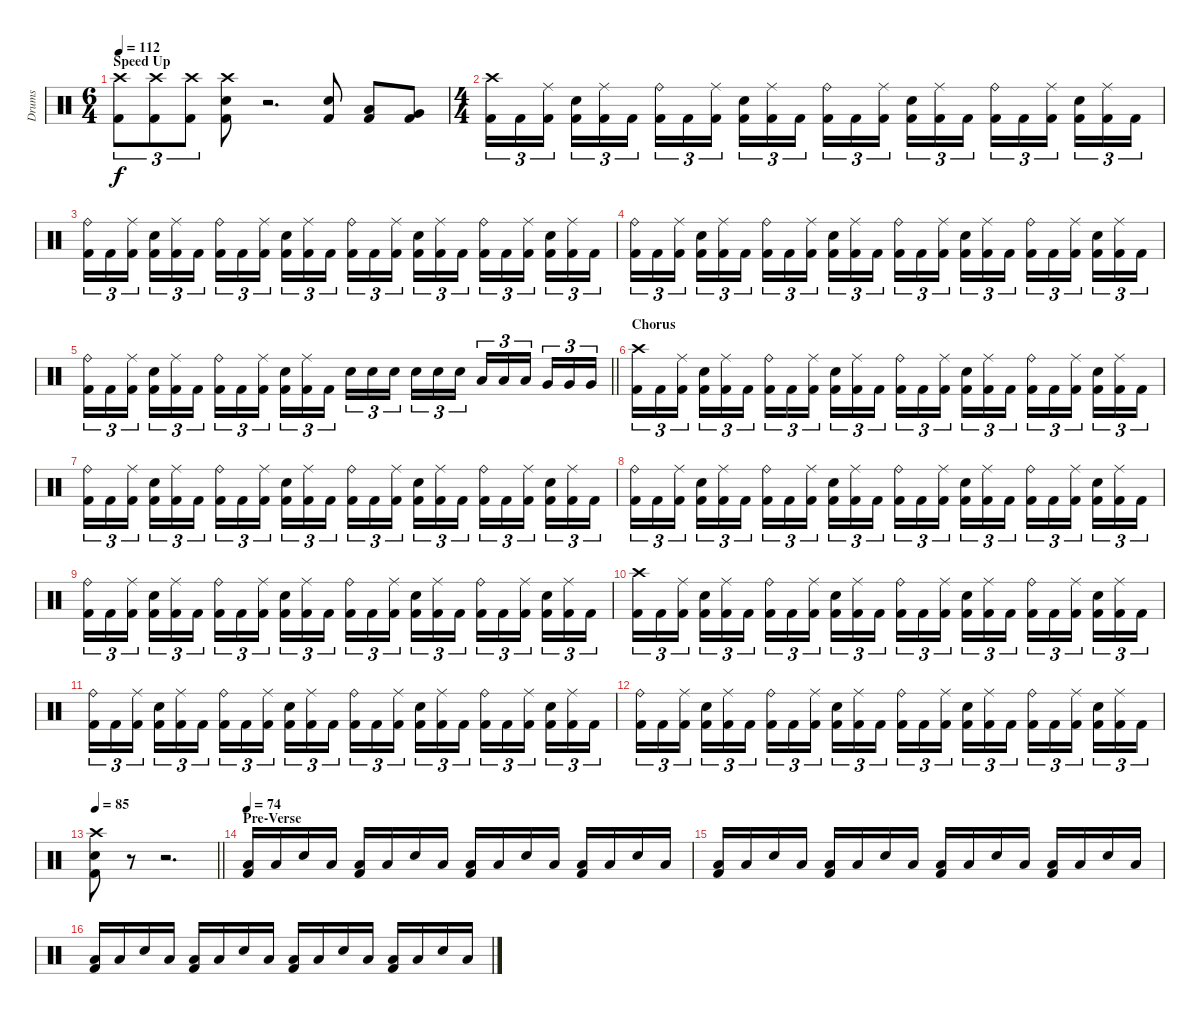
\track ("Drums" "Drums") {instrument percussion}
\staff {score}
\articulation defaults
\ts (6 4)
\section ("" "Speed Up")
\tempo 112
\clef neutral
\ks c
("Crash high (hit)" "Kick (hit) 2").8{tu (3 2) dy f} ("Crash high (hit)" "Kick (hit) 2").8{tu (3 2)} ("Crash high (hit)" "Kick (hit) 2").8{tu (3 2)} ("Crash high (hit)" "Snare (hit) 2" "Kick (hit) 2").8 r.2{d} ("Snare (hit) 2" "Kick (hit) 2").8 ("Low Tom (hit)" "Kick (hit) 2").8 ("Very Low Tom (hit)" "Kick (hit) 2").8 |
\ts (4 4)
("Crash high (hit)" "Kick (hit) 2").16{tu (3 2)} "Kick (hit) 2".16{tu (3 2)} ("Ride (middle)" "Kick (hit) 2").16{tu (3 2) beam splitsecondary} ("Snare (hit) 2" "Kick (hit) 2").16{tu (3 2)} ("Ride (middle)" "Kick (hit) 2").16{tu (3 2)} "Kick (hit) 2".16{tu (3 2)} ("Ride (bell)" "Kick (hit) 2").16{tu (3 2)} "Kick (hit) 2".16{tu (3 2)} ("Ride (middle)" "Kick (hit) 2").16{tu (3 2) beam splitsecondary} ("Snare (hit) 2" "Kick (hit) 2").16{tu (3 2)} ("Ride (middle)" "Kick (hit) 2").16{tu (3 2)} "Kick (hit) 2".16{tu (3 2)} ("Ride (bell)" "Kick (hit) 2").16{tu (3 2)} "Kick (hit) 2".16{tu (3 2)} ("Ride (middle)" "Kick (hit) 2").16{tu (3 2) beam splitsecondary} ("Snare (hit) 2" "Kick (hit) 2").16{tu (3 2)} ("Ride (middle)" "Kick (hit) 2").16{tu (3 2)} "Kick (hit) 2".16{tu (3 2)} ("Ride (bell)" "Kick (hit) 2").16{tu (3 2)} "Kick (hit) 2".16{tu (3 2)} ("Ride (middle)" "Kick (hit) 2").16{tu (3 2) beam splitsecondary} ("Snare (hit) 2" "Kick (hit) 2").16{tu (3 2)} ("Ride (middle)" "Kick (hit) 2").16{tu (3 2)} "Kick (hit) 2".16{tu (3 2)} |
("Ride (bell)" "Kick (hit) 2").16{tu (3 2)} "Kick (hit) 2".16{tu (3 2)} ("Ride (middle)" "Kick (hit) 2").16{tu (3 2) beam splitsecondary} ("Snare (hit) 2" "Kick (hit) 2").16{tu (3 2)} ("Ride (middle)" "Kick (hit) 2").16{tu (3 2)} "Kick (hit) 2".16{tu (3 2)} ("Ride (bell)" "Kick (hit) 2").16{tu (3 2)} "Kick (hit) 2".16{tu (3 2)} ("Ride (middle)" "Kick (hit) 2").16{tu (3 2) beam splitsecondary} ("Snare (hit) 2" "Kick (hit) 2").16{tu (3 2)} ("Ride (middle)" "Kick (hit) 2").16{tu (3 2)} "Kick (hit) 2".16{tu (3 2)} ("Ride (bell)" "Kick (hit) 2").16{tu (3 2)} "Kick (hit) 2".16{tu (3 2)} ("Ride (middle)" "Kick (hit) 2").16{tu (3 2) beam splitsecondary} ("Snare (hit) 2" "Kick (hit) 2").16{tu (3 2)} ("Ride (middle)" "Kick (hit) 2").16{tu (3 2)} "Kick (hit) 2".16{tu (3 2)} ("Ride (bell)" "Kick (hit) 2").16{tu (3 2)} "Kick (hit) 2".16{tu (3 2)} ("Ride (middle)" "Kick (hit) 2").16{tu (3 2) beam splitsecondary} ("Snare (hit) 2" "Kick (hit) 2").16{tu (3 2)} ("Ride (middle)" "Kick (hit) 2").16{tu (3 2)} "Kick (hit) 2".16{tu (3 2)} |
("Ride (bell)" "Kick (hit) 2").16{tu (3 2)} "Kick (hit) 2".16{tu (3 2)} ("Ride (middle)" "Kick (hit) 2").16{tu (3 2) beam splitsecondary} ("Snare (hit) 2" "Kick (hit) 2").16{tu (3 2)} ("Ride (middle)" "Kick (hit) 2").16{tu (3 2)} "Kick (hit) 2".16{tu (3 2)} ("Ride (bell)" "Kick (hit) 2").16{tu (3 2)} "Kick (hit) 2".16{tu (3 2)} ("Ride (middle)" "Kick (hit) 2").16{tu (3 2) beam splitsecondary} ("Snare (hit) 2" "Kick (hit) 2").16{tu (3 2)} ("Ride (middle)" "Kick (hit) 2").16{tu (3 2)} "Kick (hit) 2".16{tu (3 2)} ("Ride (bell)" "Kick (hit) 2").16{tu (3 2)} "Kick (hit) 2".16{tu (3 2)} ("Ride (middle)" "Kick (hit) 2").16{tu (3 2) beam splitsecondary} ("Snare (hit) 2" "Kick (hit) 2").16{tu (3 2)} ("Ride (middle)" "Kick (hit) 2").16{tu (3 2)} "Kick (hit) 2".16{tu (3 2)} ("Ride (bell)" "Kick (hit) 2").16{tu (3 2)} "Kick (hit) 2".16{tu (3 2)} ("Ride (middle)" "Kick (hit) 2").16{tu (3 2) beam splitsecondary} ("Snare (hit) 2" "Kick (hit) 2").16{tu (3 2)} ("Ride (middle)" "Kick (hit) 2").16{tu (3 2)} "Kick (hit) 2".16{tu (3 2)} |
\barLineRight lightlight
("Ride (bell)" "Kick (hit) 2").16{tu (3 2)} "Kick (hit) 2".16{tu (3 2)} ("Ride (middle)" "Kick (hit) 2").16{tu (3 2) beam splitsecondary} ("Snare (hit) 2" "Kick (hit) 2").16{tu (3 2)} ("Ride (middle)" "Kick (hit) 2").16{tu (3 2)} "Kick (hit) 2".16{tu (3 2)} ("Ride (bell)" "Kick (hit) 2").16{tu (3 2)} "Kick (hit) 2".16{tu (3 2)} ("Ride (middle)" "Kick (hit) 2").16{tu (3 2) beam splitsecondary} ("Snare (hit) 2" "Kick (hit) 2").16{tu (3 2)} ("Ride (middle)" "Kick (hit) 2").16{tu (3 2)} "Kick (hit) 2".16{tu (3 2)} "Snare (hit) 2".16{tu (3 2)} "Snare (hit) 2".16{tu (3 2)} "Snare (hit) 2".16{tu (3 2) beam splitsecondary} "Snare (hit) 2".16{tu (3 2)} "Snare (hit) 2".16{tu (3 2)} "Snare (hit) 2".16{tu (3 2)} "Low Tom (hit)".16{tu (3 2)} "Low Tom (hit)".16{tu (3 2)} "Low Tom (hit)".16{tu (3 2) beam splitsecondary} "Very Low Tom (hit)".16{tu (3 2)} "Very Low Tom (hit)".16{tu (3 2)} "Very Low Tom (hit)".16{tu (3 2)} |
\section ("" "Chorus")
("Crash high (hit)" "Kick (hit) 2").16{tu (3 2)} "Kick (hit) 2".16{tu (3 2)} ("Ride (middle)" "Kick (hit) 2").16{tu (3 2) beam splitsecondary} ("Snare (hit) 2" "Kick (hit) 2").16{tu (3 2)} ("Ride (middle)" "Kick (hit) 2").16{tu (3 2)} "Kick (hit) 2".16{tu (3 2)} ("Ride (bell)" "Kick (hit) 2").16{tu (3 2)} "Kick (hit) 2".16{tu (3 2)} ("Ride (middle)" "Kick (hit) 2").16{tu (3 2) beam splitsecondary} ("Snare (hit) 2" "Kick (hit) 2").16{tu (3 2)} ("Ride (middle)" "Kick (hit) 2").16{tu (3 2)} "Kick (hit) 2".16{tu (3 2)} ("Ride (bell)" "Kick (hit) 2").16{tu (3 2)} "Kick (hit) 2".16{tu (3 2)} ("Ride (middle)" "Kick (hit) 2").16{tu (3 2) beam splitsecondary} ("Snare (hit) 2" "Kick (hit) 2").16{tu (3 2)} ("Ride (middle)" "Kick (hit) 2").16{tu (3 2)} "Kick (hit) 2".16{tu (3 2)} ("Ride (bell)" "Kick (hit) 2").16{tu (3 2)} "Kick (hit) 2".16{tu (3 2)} ("Ride (middle)" "Kick (hit) 2").16{tu (3 2) beam splitsecondary} ("Snare (hit) 2" "Kick (hit) 2").16{tu (3 2)} ("Ride (middle)" "Kick (hit) 2").16{tu (3 2)} "Kick (hit) 2".16{tu (3 2)} |
("Ride (bell)" "Kick (hit) 2").16{tu (3 2)} "Kick (hit) 2".16{tu (3 2)} ("Ride (middle)" "Kick (hit) 2").16{tu (3 2) beam splitsecondary} ("Snare (hit) 2" "Kick (hit) 2").16{tu (3 2)} ("Ride (middle)" "Kick (hit) 2").16{tu (3 2)} "Kick (hit) 2".16{tu (3 2)} ("Ride (bell)" "Kick (hit) 2").16{tu (3 2)} "Kick (hit) 2".16{tu (3 2)} ("Ride (middle)" "Kick (hit) 2").16{tu (3 2) beam splitsecondary} ("Snare (hit) 2" "Kick (hit) 2").16{tu (3 2)} ("Ride (middle)" "Kick (hit) 2").16{tu (3 2)} "Kick (hit) 2".16{tu (3 2)} ("Ride (bell)" "Kick (hit) 2").16{tu (3 2)} "Kick (hit) 2".16{tu (3 2)} ("Ride (middle)" "Kick (hit) 2").16{tu (3 2) beam splitsecondary} ("Snare (hit) 2" "Kick (hit) 2").16{tu (3 2)} ("Ride (middle)" "Kick (hit) 2").16{tu (3 2)} "Kick (hit) 2".16{tu (3 2)} ("Ride (bell)" "Kick (hit) 2").16{tu (3 2)} "Kick (hit) 2".16{tu (3 2)} ("Ride (middle)" "Kick (hit) 2").16{tu (3 2) beam splitsecondary} ("Snare (hit) 2" "Kick (hit) 2").16{tu (3 2)} ("Ride (middle)" "Kick (hit) 2").16{tu (3 2)} "Kick (hit) 2".16{tu (3 2)} |
("Ride (bell)" "Kick (hit) 2").16{tu (3 2)} "Kick (hit) 2".16{tu (3 2)} ("Ride (middle)" "Kick (hit) 2").16{tu (3 2) beam splitsecondary} ("Snare (hit) 2" "Kick (hit) 2").16{tu (3 2)} ("Ride (middle)" "Kick (hit) 2").16{tu (3 2)} "Kick (hit) 2".16{tu (3 2)} ("Ride (bell)" "Kick (hit) 2").16{tu (3 2)} "Kick (hit) 2".16{tu (3 2)} ("Ride (middle)" "Kick (hit) 2").16{tu (3 2) beam splitsecondary} ("Snare (hit) 2" "Kick (hit) 2").16{tu (3 2)} ("Ride (middle)" "Kick (hit) 2").16{tu (3 2)} "Kick (hit) 2".16{tu (3 2)} ("Ride (bell)" "Kick (hit) 2").16{tu (3 2)} "Kick (hit) 2".16{tu (3 2)} ("Ride (middle)" "Kick (hit) 2").16{tu (3 2) beam splitsecondary} ("Snare (hit) 2" "Kick (hit) 2").16{tu (3 2)} ("Ride (middle)" "Kick (hit) 2").16{tu (3 2)} "Kick (hit) 2".16{tu (3 2)} ("Ride (bell)" "Kick (hit) 2").16{tu (3 2)} "Kick (hit) 2".16{tu (3 2)} ("Ride (middle)" "Kick (hit) 2").16{tu (3 2) beam splitsecondary} ("Snare (hit) 2" "Kick (hit) 2").16{tu (3 2)} ("Ride (middle)" "Kick (hit) 2").16{tu (3 2)} "Kick (hit) 2".16{tu (3 2)} |
("Ride (bell)" "Kick (hit) 2").16{tu (3 2)} "Kick (hit) 2".16{tu (3 2)} ("Ride (middle)" "Kick (hit) 2").16{tu (3 2) beam splitsecondary} ("Snare (hit) 2" "Kick (hit) 2").16{tu (3 2)} ("Ride (middle)" "Kick (hit) 2").16{tu (3 2)} "Kick (hit) 2".16{tu (3 2)} ("Ride (bell)" "Kick (hit) 2").16{tu (3 2)} "Kick (hit) 2".16{tu (3 2)} ("Ride (middle)" "Kick (hit) 2").16{tu (3 2) beam splitsecondary} ("Snare (hit) 2" "Kick (hit) 2").16{tu (3 2)} ("Ride (middle)" "Kick (hit) 2").16{tu (3 2)} "Kick (hit) 2".16{tu (3 2)} ("Ride (bell)" "Kick (hit) 2").16{tu (3 2)} "Kick (hit) 2".16{tu (3 2)} ("Ride (middle)" "Kick (hit) 2").16{tu (3 2) beam splitsecondary} ("Snare (hit) 2" "Kick (hit) 2").16{tu (3 2)} ("Ride (middle)" "Kick (hit) 2").16{tu (3 2)} "Kick (hit) 2".16{tu (3 2)} ("Ride (bell)" "Kick (hit) 2").16{tu (3 2)} "Kick (hit) 2".16{tu (3 2)} ("Ride (middle)" "Kick (hit) 2").16{tu (3 2) beam splitsecondary} ("Snare (hit) 2" "Kick (hit) 2").16{tu (3 2)} ("Ride (middle)" "Kick (hit) 2").16{tu (3 2)} "Kick (hit) 2".16{tu (3 2)} |
("Crash high (hit)" "Kick (hit) 2").16{tu (3 2)} "Kick (hit) 2".16{tu (3 2)} ("Ride (middle)" "Kick (hit) 2").16{tu (3 2) beam splitsecondary} ("Snare (hit) 2" "Kick (hit) 2").16{tu (3 2)} ("Ride (middle)" "Kick (hit) 2").16{tu (3 2)} "Kick (hit) 2".16{tu (3 2)} ("Ride (bell)" "Kick (hit) 2").16{tu (3 2)} "Kick (hit) 2".16{tu (3 2)} ("Ride (middle)" "Kick (hit) 2").16{tu (3 2) beam splitsecondary} ("Snare (hit) 2" "Kick (hit) 2").16{tu (3 2)} ("Ride (middle)" "Kick (hit) 2").16{tu (3 2)} "Kick (hit) 2".16{tu (3 2)} ("Ride (bell)" "Kick (hit) 2").16{tu (3 2)} "Kick (hit) 2".16{tu (3 2)} ("Ride (middle)" "Kick (hit) 2").16{tu (3 2) beam splitsecondary} ("Snare (hit) 2" "Kick (hit) 2").16{tu (3 2)} ("Ride (middle)" "Kick (hit) 2").16{tu (3 2)} "Kick (hit) 2".16{tu (3 2)} ("Ride (bell)" "Kick (hit) 2").16{tu (3 2)} "Kick (hit) 2".16{tu (3 2)} ("Ride (middle)" "Kick (hit) 2").16{tu (3 2) beam splitsecondary} ("Snare (hit) 2" "Kick (hit) 2").16{tu (3 2)} ("Ride (middle)" "Kick (hit) 2").16{tu (3 2)} "Kick (hit) 2".16{tu (3 2)} |
("Ride (bell)" "Kick (hit) 2").16{tu (3 2)} "Kick (hit) 2".16{tu (3 2)} ("Ride (middle)" "Kick (hit) 2").16{tu (3 2) beam splitsecondary} ("Snare (hit) 2" "Kick (hit) 2").16{tu (3 2)} ("Ride (middle)" "Kick (hit) 2").16{tu (3 2)} "Kick (hit) 2".16{tu (3 2)} ("Ride (bell)" "Kick (hit) 2").16{tu (3 2)} "Kick (hit) 2".16{tu (3 2)} ("Ride (middle)" "Kick (hit) 2").16{tu (3 2) beam splitsecondary} ("Snare (hit) 2" "Kick (hit) 2").16{tu (3 2)} ("Ride (middle)" "Kick (hit) 2").16{tu (3 2)} "Kick (hit) 2".16{tu (3 2)} ("Ride (bell)" "Kick (hit) 2").16{tu (3 2)} "Kick (hit) 2".16{tu (3 2)} ("Ride (middle)" "Kick (hit) 2").16{tu (3 2) beam splitsecondary} ("Snare (hit) 2" "Kick (hit) 2").16{tu (3 2)} ("Ride (middle)" "Kick (hit) 2").16{tu (3 2)} "Kick (hit) 2".16{tu (3 2)} ("Ride (bell)" "Kick (hit) 2").16{tu (3 2)} "Kick (hit) 2".16{tu (3 2)} ("Ride (middle)" "Kick (hit) 2").16{tu (3 2) beam splitsecondary} ("Snare (hit) 2" "Kick (hit) 2").16{tu (3 2)} ("Ride (middle)" "Kick (hit) 2").16{tu (3 2)} "Kick (hit) 2".16{tu (3 2)} |
("Ride (bell)" "Kick (hit) 2").16{tu (3 2)} "Kick (hit) 2".16{tu (3 2)} ("Ride (middle)" "Kick (hit) 2").16{tu (3 2) beam splitsecondary} ("Snare (hit) 2" "Kick (hit) 2").16{tu (3 2)} ("Ride (middle)" "Kick (hit) 2").16{tu (3 2)} "Kick (hit) 2".16{tu (3 2)} ("Ride (bell)" "Kick (hit) 2").16{tu (3 2)} "Kick (hit) 2".16{tu (3 2)} ("Ride (middle)" "Kick (hit) 2").16{tu (3 2) beam splitsecondary} ("Snare (hit) 2" "Kick (hit) 2").16{tu (3 2)} ("Ride (middle)" "Kick (hit) 2").16{tu (3 2)} "Kick (hit) 2".16{tu (3 2)} ("Ride (bell)" "Kick (hit) 2").16{tu (3 2)} "Kick (hit) 2".16{tu (3 2)} ("Ride (middle)" "Kick (hit) 2").16{tu (3 2) beam splitsecondary} ("Snare (hit) 2" "Kick (hit) 2").16{tu (3 2)} ("Ride (middle)" "Kick (hit) 2").16{tu (3 2)} "Kick (hit) 2".16{tu (3 2)} ("Ride (bell)" "Kick (hit) 2").16{tu (3 2)} "Kick (hit) 2".16{tu (3 2)} ("Ride (middle)" "Kick (hit) 2").16{tu (3 2) beam splitsecondary} ("Snare (hit) 2" "Kick (hit) 2").16{tu (3 2)} ("Ride (middle)" "Kick (hit) 2").16{tu (3 2)} "Kick (hit) 2".16{tu (3 2)} |
\tempo 85
\barLineRight lightlight
("Crash high (hit)" "Snare (hit) 2" "Kick (hit) 2").8 r.8 r.2{d} |
\section ("" "Pre-Verse")
\tempo 74
("Low Floor Tom (hit)" "Kick (hit) 2").16 "Low Floor Tom (hit)".16 "Snare (hit) 2".16 "Low Floor Tom (hit)".16 ("Low Floor Tom (hit)" "Kick (hit) 2").16 "Low Floor Tom (hit)".16 "Snare (hit) 2".16 "Low Floor Tom (hit)".16 ("Low Floor Tom (hit)" "Kick (hit) 2").16 "Low Floor Tom (hit)".16 "Snare (hit) 2".16 "Low Floor Tom (hit)".16 ("Low Floor Tom (hit)" "Kick (hit) 2").16 "Low Floor Tom (hit)".16 "Snare (hit) 2".16 "Low Floor Tom (hit)".16 |
("Low Floor Tom (hit)" "Kick (hit) 2").16 "Low Floor Tom (hit)".16 "Snare (hit) 2".16 "Low Floor Tom (hit)".16 ("Low Floor Tom (hit)" "Kick (hit) 2").16 "Low Floor Tom (hit)".16 "Snare (hit) 2".16 "Low Floor Tom (hit)".16 ("Low Floor Tom (hit)" "Kick (hit) 2").16 "Low Floor Tom (hit)".16 "Snare (hit) 2".16 "Low Floor Tom (hit)".16 ("Low Floor Tom (hit)" "Kick (hit) 2").16 "Low Floor Tom (hit)".16 "Snare (hit) 2".16 "Low Floor Tom (hit)".16 |
("Low Floor Tom (hit)" "Kick (hit) 2").16 "Low Floor Tom (hit)".16 "Snare (hit) 2".16 "Low Floor Tom (hit)".16 ("Low Floor Tom (hit)" "Kick (hit) 2").16 "Low Floor Tom (hit)".16 "Snare (hit) 2".16 "Low Floor Tom (hit)".16 ("Low Floor Tom (hit)" "Kick (hit) 2").16 "Low Floor Tom (hit)".16 "Snare (hit) 2".16 "Low Floor Tom (hit)".16 ("Low Floor Tom (hit)" "Kick (hit) 2").16 "Low Floor Tom (hit)".16 "Snare (hit) 2".16 "Low Floor Tom (hit)".16
